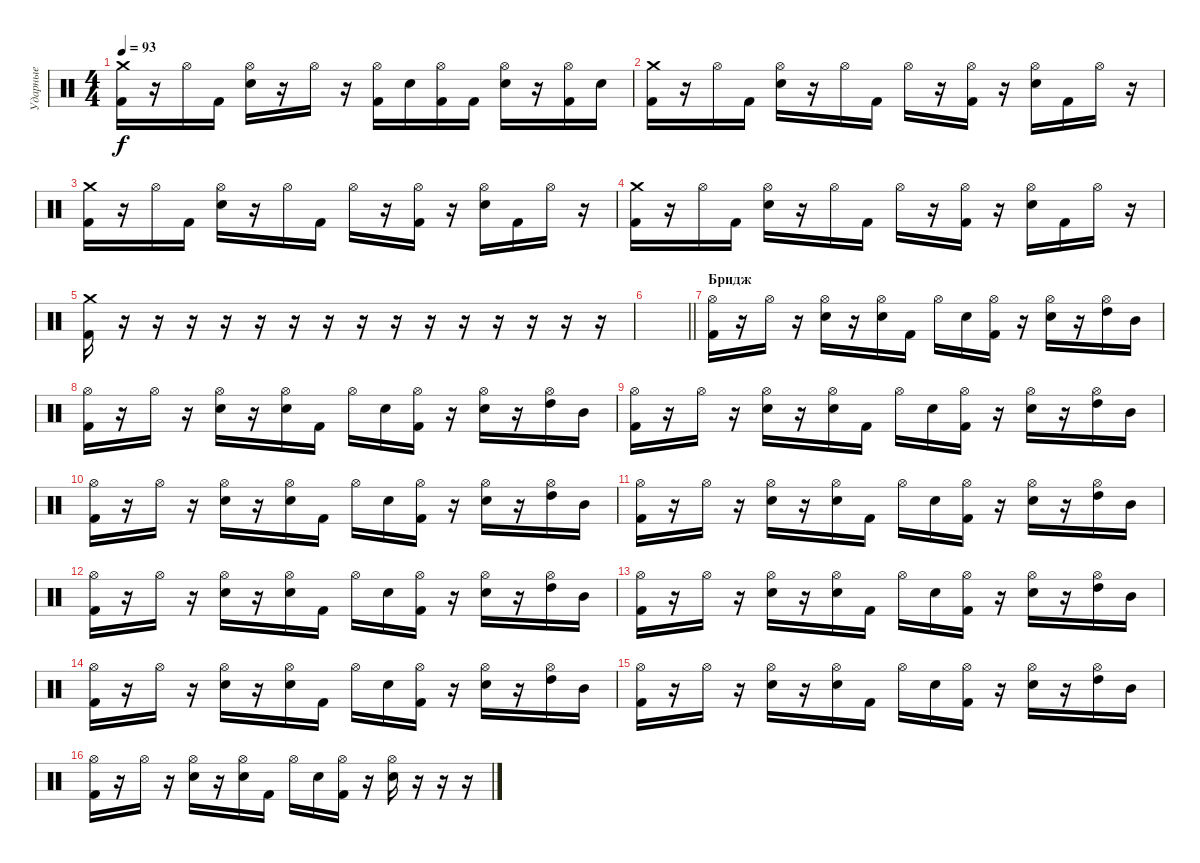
\track ("Ударные" "Ударные") {instrument percussion}
\staff {score}
\articulation defaults
\ts (4 4)
\tempo 93
\clef neutral
\ks c
("Crash medium (hit)" "Kick (hit) 2").16{dy f} r.16 "Hi-Hat (open)".16 "Kick (hit) 2".16 ("Hi-Hat (open)" "Electric Snare (hit)").16 r.16 "Hi-Hat (open)".16 r.16 ("Hi-Hat (open)" "Kick (hit) 2").16 "Electric Snare (hit)".16 ("Hi-Hat (open)" "Kick (hit) 2").16 "Kick (hit) 2".16 ("Hi-Hat (open)" "Electric Snare (hit)").16 r.16 ("Hi-Hat (open)" "Kick (hit) 2").16 "Electric Snare (hit)".16 |
("Crash medium (hit)" "Kick (hit) 2").16 r.16 "Hi-Hat (open)".16 "Kick (hit) 2".16 ("Hi-Hat (open)" "Electric Snare (hit)").16 r.16 "Hi-Hat (open)".16 "Kick (hit) 2".16 "Hi-Hat (open)".16 r.16 ("Hi-Hat (open)" "Kick (hit) 2").16 r.16 ("Hi-Hat (open)" "Electric Snare (hit)").16 "Kick (hit) 2".16 "Hi-Hat (open)".16 r.16 |
("Crash medium (hit)" "Kick (hit) 2").16 r.16 "Hi-Hat (open)".16 "Kick (hit) 2".16 ("Hi-Hat (open)" "Electric Snare (hit)").16 r.16 "Hi-Hat (open)".16 "Kick (hit) 2".16 "Hi-Hat (open)".16 r.16 ("Hi-Hat (open)" "Kick (hit) 2").16 r.16 ("Hi-Hat (open)" "Electric Snare (hit)").16 "Kick (hit) 2".16 "Hi-Hat (open)".16 r.16 |
("Crash medium (hit)" "Kick (hit) 2").16 r.16 "Hi-Hat (open)".16 "Kick (hit) 2".16 ("Hi-Hat (open)" "Electric Snare (hit)").16 r.16 "Hi-Hat (open)".16 "Kick (hit) 2".16 "Hi-Hat (open)".16 r.16 ("Hi-Hat (open)" "Kick (hit) 2").16 r.16 ("Hi-Hat (open)" "Electric Snare (hit)").16 "Kick (hit) 2".16 "Hi-Hat (open)".16 r.16 |
("Crash medium (hit)" "Kick (hit) 2").16 r.16 r.16 r.16 r.16 r.16 r.16 r.16 r.16 r.16 r.16 r.16 r.16 r.16 r.16 r.16 |
\barLineRight lightlight
|
\section ("" "Бридж")
("Hi-Hat (open)" "Kick (hit) 2").16 r.16 "Hi-Hat (open)".16 r.16 ("Hi-Hat (open)" "Electric Snare (hit)").16 r.16 ("Hi-Hat (open)" "Electric Snare (hit)").16 "Kick (hit) 2".16 "Hi-Hat (open)".16 "Electric Snare (hit)".16 ("Hi-Hat (open)" "Kick (hit) 2").16 r.16 ("Hi-Hat (open)" "Electric Snare (hit)").16 r.16 ("Hi-Hat (open)" "High Tom (hit)").16 "Mid Tom (hit)".16 |
("Hi-Hat (open)" "Kick (hit) 2").16 r.16 "Hi-Hat (open)".16 r.16 ("Hi-Hat (open)" "Electric Snare (hit)").16 r.16 ("Hi-Hat (open)" "Electric Snare (hit)").16 "Kick (hit) 2".16 "Hi-Hat (open)".16 "Electric Snare (hit)".16 ("Hi-Hat (open)" "Kick (hit) 2").16 r.16 ("Hi-Hat (open)" "Electric Snare (hit)").16 r.16 ("Hi-Hat (open)" "High Tom (hit)").16 "Mid Tom (hit)".16 |
("Hi-Hat (open)" "Kick (hit) 2").16 r.16 "Hi-Hat (open)".16 r.16 ("Hi-Hat (open)" "Electric Snare (hit)").16 r.16 ("Hi-Hat (open)" "Electric Snare (hit)").16 "Kick (hit) 2".16 "Hi-Hat (open)".16 "Electric Snare (hit)".16 ("Hi-Hat (open)" "Kick (hit) 2").16 r.16 ("Hi-Hat (open)" "Electric Snare (hit)").16 r.16 ("Hi-Hat (open)" "High Tom (hit)").16 "Mid Tom (hit)".16 |
("Hi-Hat (open)" "Kick (hit) 2").16 r.16 "Hi-Hat (open)".16 r.16 ("Hi-Hat (open)" "Electric Snare (hit)").16 r.16 ("Hi-Hat (open)" "Electric Snare (hit)").16 "Kick (hit) 2".16 "Hi-Hat (open)".16 "Electric Snare (hit)".16 ("Hi-Hat (open)" "Kick (hit) 2").16 r.16 ("Hi-Hat (open)" "Electric Snare (hit)").16 r.16 ("Hi-Hat (open)" "High Tom (hit)").16 "Mid Tom (hit)".16 |
("Hi-Hat (open)" "Kick (hit) 2").16 r.16 "Hi-Hat (open)".16 r.16 ("Hi-Hat (open)" "Electric Snare (hit)").16 r.16 ("Hi-Hat (open)" "Electric Snare (hit)").16 "Kick (hit) 2".16 "Hi-Hat (open)".16 "Electric Snare (hit)".16 ("Hi-Hat (open)" "Kick (hit) 2").16 r.16 ("Hi-Hat (open)" "Electric Snare (hit)").16 r.16 ("Hi-Hat (open)" "High Tom (hit)").16 "Mid Tom (hit)".16 |
("Hi-Hat (open)" "Kick (hit) 2").16 r.16 "Hi-Hat (open)".16 r.16 ("Hi-Hat (open)" "Electric Snare (hit)").16 r.16 ("Hi-Hat (open)" "Electric Snare (hit)").16 "Kick (hit) 2".16 "Hi-Hat (open)".16 "Electric Snare (hit)".16 ("Hi-Hat (open)" "Kick (hit) 2").16 r.16 ("Hi-Hat (open)" "Electric Snare (hit)").16 r.16 ("Hi-Hat (open)" "High Tom (hit)").16 "Mid Tom (hit)".16 |
("Hi-Hat (open)" "Kick (hit) 2").16 r.16 "Hi-Hat (open)".16 r.16 ("Hi-Hat (open)" "Electric Snare (hit)").16 r.16 ("Hi-Hat (open)" "Electric Snare (hit)").16 "Kick (hit) 2".16 "Hi-Hat (open)".16 "Electric Snare (hit)".16 ("Hi-Hat (open)" "Kick (hit) 2").16 r.16 ("Hi-Hat (open)" "Electric Snare (hit)").16 r.16 ("Hi-Hat (open)" "High Tom (hit)").16 "Mid Tom (hit)".16 |
("Hi-Hat (open)" "Kick (hit) 2").16 r.16 "Hi-Hat (open)".16 r.16 ("Hi-Hat (open)" "Electric Snare (hit)").16 r.16 ("Hi-Hat (open)" "Electric Snare (hit)").16 "Kick (hit) 2".16 "Hi-Hat (open)".16 "Electric Snare (hit)".16 ("Hi-Hat (open)" "Kick (hit) 2").16 r.16 ("Hi-Hat (open)" "Electric Snare (hit)").16 r.16 ("Hi-Hat (open)" "High Tom (hit)").16 "Mid Tom (hit)".16 |
("Hi-Hat (open)" "Kick (hit) 2").16 r.16 "Hi-Hat (open)".16 r.16 ("Hi-Hat (open)" "Electric Snare (hit)").16 r.16 ("Hi-Hat (open)" "Electric Snare (hit)").16 "Kick (hit) 2".16 "Hi-Hat (open)".16 "Electric Snare (hit)".16 ("Hi-Hat (open)" "Kick (hit) 2").16 r.16 ("Hi-Hat (open)" "Electric Snare (hit)").16 r.16 ("Hi-Hat (open)" "High Tom (hit)").16 "Mid Tom (hit)".16 |
("Hi-Hat (open)" "Kick (hit) 2").16 r.16 "Hi-Hat (open)".16 r.16 ("Hi-Hat (open)" "Electric Snare (hit)").16 r.16 ("Hi-Hat (open)" "Electric Snare (hit)").16 "Kick (hit) 2".16 "Hi-Hat (open)".16 "Electric Snare (hit)".16 ("Hi-Hat (open)" "Kick (hit) 2").16 r.16 ("Hi-Hat (open)" "Electric Snare (hit)").16 r.16 r.16 r.16
